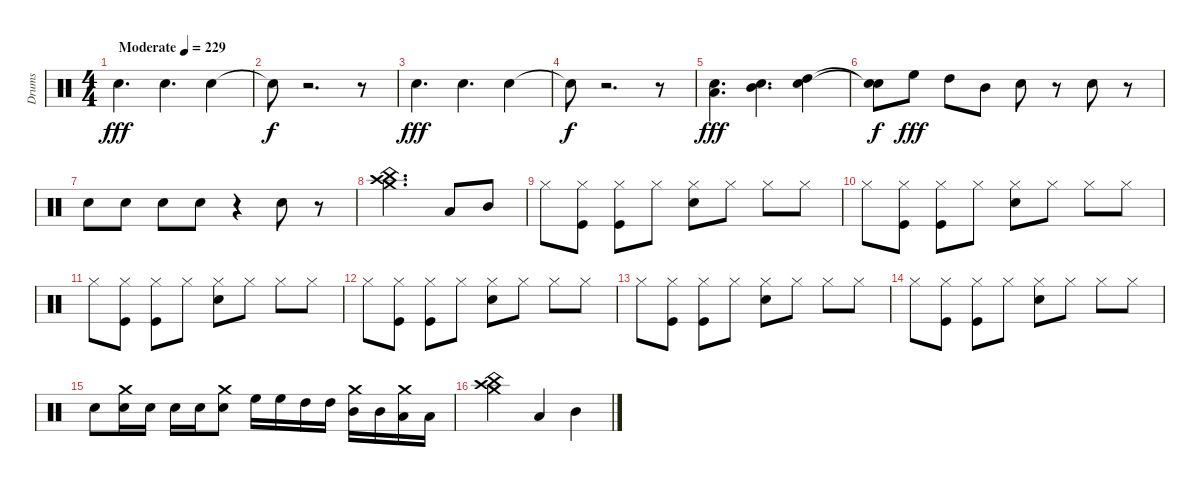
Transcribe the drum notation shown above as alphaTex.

\track ("Drums" "Drums") {instrument percussion}
\staff {score}
\articulation defaults
\ts (4 4)
\tempo (229 "Moderate")
\clef neutral
\ks c "Electric Snare (hit)".4{d dy fff} "Electric Snare (hit)".4{d} "Electric Snare (hit)".4
|
"Snare (hit)"{t}.8{dy f} r.2{d} r.8 |
"Electric Snare (hit)".4{d dy fff} "Electric Snare (hit)".4{d} "Electric Snare (hit)".4 |
"Snare (hit)"{t}.8{dy f} r.2{d} r.8 |
("Low Tom (hit)" "Electric Snare (hit)").4{d dy fff} ("Electric Snare (hit)" "Mid Tom (hit)").4{d} ("Electric Snare (hit)" "High Tom (hit)").4 |
("Snare (hit)"{t} "Snare (hit)"{t}).8{dy f} "High Floor Tom (hit)".8{dy fff} "High Tom (hit)".8 "Mid Tom (hit)".8 "Electric Snare (hit)".8 r.8 "Electric Snare (hit)".8 r.8 |
"Electric Snare (hit)".8 "Electric Snare (hit)".8 "Electric Snare (hit)".8 "Electric Snare (hit)".8 r.4 "Electric Snare (hit)".8 r.8 |
("China (hit)" "Crash high (hit)" "Crash medium (hit)").2{d} "Low Tom (hit)".8 "Mid Tom (hit)".8 |
"Hi-Hat (closed)".8 ("Kick (hit)" "Hi-Hat (closed)").8 ("Hi-Hat (closed)" "Kick (hit)").8 "Hi-Hat (closed)".8 ("Snare (hit) 2" "Hi-Hat (closed)").8 "Hi-Hat (closed)".8 "Hi-Hat (closed)".8 "Hi-Hat (closed)".8 |
"Hi-Hat (closed)".8 ("Kick (hit)" "Hi-Hat (closed)").8 ("Hi-Hat (closed)" "Kick (hit)").8 "Hi-Hat (closed)".8 ("Snare (hit) 2" "Hi-Hat (closed)").8 "Hi-Hat (closed)".8 "Hi-Hat (closed)".8 "Hi-Hat (closed)".8 |
"Hi-Hat (closed)".8 ("Kick (hit)" "Hi-Hat (closed)").8 ("Hi-Hat (closed)" "Kick (hit)").8 "Hi-Hat (closed)".8 ("Snare (hit) 2" "Hi-Hat (closed)").8 "Hi-Hat (closed)".8 "Hi-Hat (closed)".8 "Hi-Hat (closed)".8 |
"Hi-Hat (closed)".8 ("Kick (hit)" "Hi-Hat (closed)").8 ("Hi-Hat (closed)" "Kick (hit)").8 "Hi-Hat (closed)".8 ("Snare (hit) 2" "Hi-Hat (closed)").8 "Hi-Hat (closed)".8 "Hi-Hat (closed)".8 "Hi-Hat (closed)".8 |
"Hi-Hat (closed)".8 ("Kick (hit)" "Hi-Hat (closed)").8 ("Hi-Hat (closed)" "Kick (hit)").8 "Hi-Hat (closed)".8 ("Snare (hit) 2" "Hi-Hat (closed)").8 "Hi-Hat (closed)".8 "Hi-Hat (closed)".8 "Hi-Hat (closed)".8 |
"Hi-Hat (closed)".8 ("Kick (hit)" "Hi-Hat (closed)").8 ("Hi-Hat (closed)" "Kick (hit)").8 "Hi-Hat (closed)".8 ("Snare (hit) 2" "Hi-Hat (closed)").8 "Hi-Hat (closed)".8 "Hi-Hat (closed)".8 "Hi-Hat (closed)".8 |
"Electric Snare (hit)".8 ("Electric Snare (hit)" "Crash medium (hit)").16 "Electric Snare (hit)".16 "Electric Snare (hit)".16 "Electric Snare (hit)".16 ("Electric Snare (hit)" "Crash medium (hit)").8 "High Floor Tom (hit)".16 "High Floor Tom (hit)".16 "High Tom (hit)".16 "High Tom (hit)".16 ("Mid Tom (hit)" "Crash medium (hit)").16 "Mid Tom (hit)".16 ("Low Tom (hit)" "Crash medium (hit)").16 "Low Tom (hit)".16 |
("Crash medium (hit)" "China (hit)" "Crash high (hit)").2 "Low Tom (hit)".4 "Mid Tom (hit)".4
